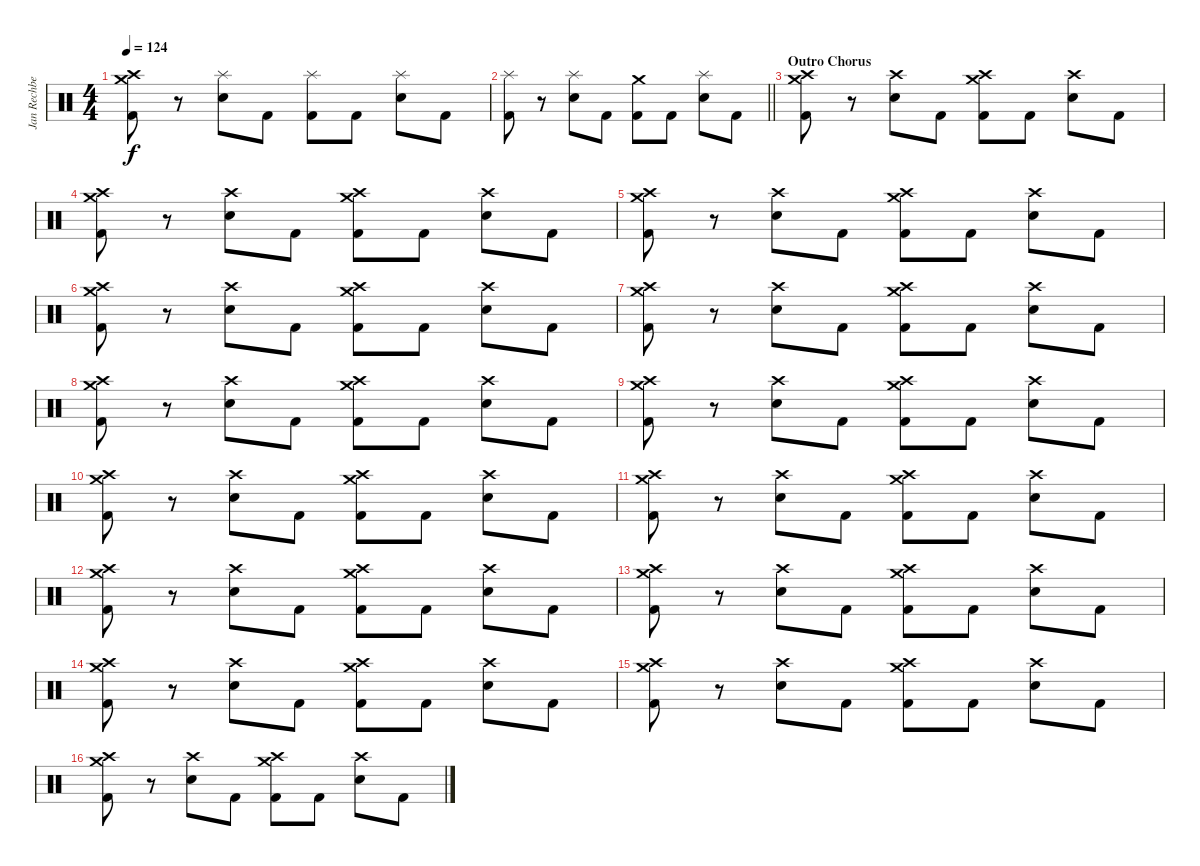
\track ("Jan Rechberger" "Jan Rechbe") {instrument percussion}
\staff {score}
\articulation defaults
\ts (4 4)
\tempo 124
\clef neutral
\ks c
("Crash medium (hit)" "Crash high (hit)" "Kick (hit) 2").8{dy f} r.8 ("Splash (hit)" "Snare (hit) 2").8 "Kick (hit) 2".8 ("Splash (hit)" "Kick (hit) 2").8 "Kick (hit) 2".8 ("Splash (hit)" "Snare (hit) 2").8 "Kick (hit) 2".8 |
\barLineRight lightlight
("Splash (hit)" "Kick (hit) 2").8 r.8 ("Splash (hit)" "Snare (hit) 2").8 "Kick (hit) 2".8 ("Crash medium (hit)" "Kick (hit) 2").8 "Kick (hit) 2".8 ("Splash (hit)" "Snare (hit) 2").8 "Kick (hit) 2".8 |
\section ("" "Outro Chorus")
("Crash medium (hit)" "Crash high (hit)" "Kick (hit) 2").8 r.8 ("Crash high (hit)" "Snare (hit) 2").8 "Kick (hit) 2".8 ("Crash high (hit)" "Crash medium (hit)" "Kick (hit) 2").8 "Kick (hit) 2".8 ("Crash high (hit)" "Snare (hit) 2").8 "Kick (hit) 2".8 |
("Crash medium (hit)" "Crash high (hit)" "Kick (hit) 2").8 r.8 ("Crash high (hit)" "Snare (hit) 2").8 "Kick (hit) 2".8 ("Crash high (hit)" "Crash medium (hit)" "Kick (hit) 2").8 "Kick (hit) 2".8 ("Crash high (hit)" "Snare (hit) 2").8 "Kick (hit) 2".8 |
("Crash medium (hit)" "Crash high (hit)" "Kick (hit) 2").8 r.8 ("Crash high (hit)" "Snare (hit) 2").8 "Kick (hit) 2".8 ("Crash high (hit)" "Crash medium (hit)" "Kick (hit) 2").8 "Kick (hit) 2".8 ("Crash high (hit)" "Snare (hit) 2").8 "Kick (hit) 2".8 |
("Crash medium (hit)" "Crash high (hit)" "Kick (hit) 2").8 r.8 ("Crash high (hit)" "Snare (hit) 2").8 "Kick (hit) 2".8 ("Crash high (hit)" "Crash medium (hit)" "Kick (hit) 2").8 "Kick (hit) 2".8 ("Crash high (hit)" "Snare (hit) 2").8 "Kick (hit) 2".8 |
("Crash medium (hit)" "Crash high (hit)" "Kick (hit) 2").8 r.8 ("Crash high (hit)" "Snare (hit) 2").8 "Kick (hit) 2".8 ("Crash high (hit)" "Crash medium (hit)" "Kick (hit) 2").8 "Kick (hit) 2".8 ("Crash high (hit)" "Snare (hit) 2").8 "Kick (hit) 2".8 |
("Crash medium (hit)" "Crash high (hit)" "Kick (hit) 2").8 r.8 ("Crash high (hit)" "Snare (hit) 2").8 "Kick (hit) 2".8 ("Crash high (hit)" "Crash medium (hit)" "Kick (hit) 2").8 "Kick (hit) 2".8 ("Crash high (hit)" "Snare (hit) 2").8 "Kick (hit) 2".8 |
("Crash medium (hit)" "Crash high (hit)" "Kick (hit) 2").8 r.8 ("Crash high (hit)" "Snare (hit) 2").8 "Kick (hit) 2".8 ("Crash high (hit)" "Crash medium (hit)" "Kick (hit) 2").8 "Kick (hit) 2".8 ("Crash high (hit)" "Snare (hit) 2").8 "Kick (hit) 2".8 |
("Crash medium (hit)" "Crash high (hit)" "Kick (hit) 2").8 r.8 ("Crash high (hit)" "Snare (hit) 2").8 "Kick (hit) 2".8 ("Crash high (hit)" "Crash medium (hit)" "Kick (hit) 2").8 "Kick (hit) 2".8 ("Crash high (hit)" "Snare (hit) 2").8 "Kick (hit) 2".8 |
("Crash medium (hit)" "Crash high (hit)" "Kick (hit) 2").8 r.8 ("Crash high (hit)" "Snare (hit) 2").8 "Kick (hit) 2".8 ("Crash high (hit)" "Crash medium (hit)" "Kick (hit) 2").8 "Kick (hit) 2".8 ("Crash high (hit)" "Snare (hit) 2").8 "Kick (hit) 2".8 |
("Crash medium (hit)" "Crash high (hit)" "Kick (hit) 2").8 r.8 ("Crash high (hit)" "Snare (hit) 2").8 "Kick (hit) 2".8 ("Crash high (hit)" "Crash medium (hit)" "Kick (hit) 2").8 "Kick (hit) 2".8 ("Crash high (hit)" "Snare (hit) 2").8 "Kick (hit) 2".8 |
("Crash medium (hit)" "Crash high (hit)" "Kick (hit) 2").8 r.8 ("Crash high (hit)" "Snare (hit) 2").8 "Kick (hit) 2".8 ("Crash high (hit)" "Crash medium (hit)" "Kick (hit) 2").8 "Kick (hit) 2".8 ("Crash high (hit)" "Snare (hit) 2").8 "Kick (hit) 2".8 |
("Crash medium (hit)" "Crash high (hit)" "Kick (hit) 2").8 r.8 ("Crash high (hit)" "Snare (hit) 2").8 "Kick (hit) 2".8 ("Crash high (hit)" "Crash medium (hit)" "Kick (hit) 2").8 "Kick (hit) 2".8 ("Crash high (hit)" "Snare (hit) 2").8 "Kick (hit) 2".8 |
("Crash medium (hit)" "Crash high (hit)" "Kick (hit) 2").8 r.8 ("Crash high (hit)" "Snare (hit) 2").8 "Kick (hit) 2".8 ("Crash high (hit)" "Crash medium (hit)" "Kick (hit) 2").8 "Kick (hit) 2".8 ("Crash high (hit)" "Snare (hit) 2").8 "Kick (hit) 2".8 |
("Crash medium (hit)" "Crash high (hit)" "Kick (hit) 2").8 r.8 ("Crash high (hit)" "Snare (hit) 2").8 "Kick (hit) 2".8 ("Crash high (hit)" "Crash medium (hit)" "Kick (hit) 2").8 "Kick (hit) 2".8 ("Crash high (hit)" "Snare (hit) 2").8 "Kick (hit) 2".8
